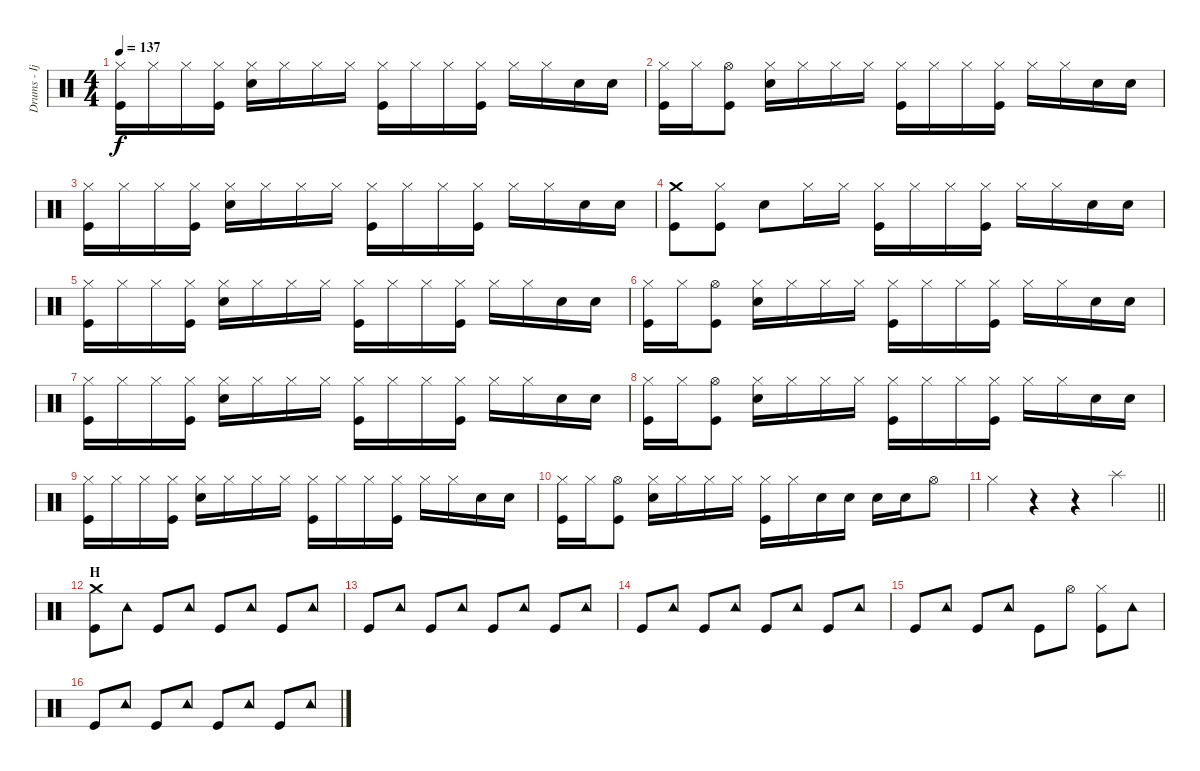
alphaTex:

\track ("Drums - Ijichi" "Drums - Ij") {instrument percussion}
\staff {score}
\articulation defaults
\ts (4 4)
\tempo 137
\clef neutral
\ks c
("Hi-Hat (closed)" "Kick (hit)").16{dy f} "Hi-Hat (closed)".16 "Hi-Hat (closed)".16 ("Hi-Hat (closed)" "Kick (hit)").16 ("Hi-Hat (closed)" "Electric Snare (hit)").16 "Hi-Hat (closed)".16 "Hi-Hat (closed)".16 "Hi-Hat (closed)".16 ("Hi-Hat (closed)" "Kick (hit)").16 "Hi-Hat (closed)".16 "Hi-Hat (closed)".16 ("Hi-Hat (closed)" "Kick (hit)").16 "Hi-Hat (closed)".16 "Hi-Hat (closed)".16 "Electric Snare (hit)".16 "Electric Snare (hit)".16 |
("Hi-Hat (closed)" "Kick (hit)").16 "Hi-Hat (closed)".16 ("Hi-Hat (open)" "Kick (hit)").8 ("Hi-Hat (closed)" "Electric Snare (hit)").16 "Hi-Hat (closed)".16 "Hi-Hat (closed)".16 "Hi-Hat (closed)".16 ("Hi-Hat (closed)" "Kick (hit)").16 "Hi-Hat (closed)".16 "Hi-Hat (closed)".16 ("Hi-Hat (closed)" "Kick (hit)").16 "Hi-Hat (closed)".16 "Hi-Hat (closed)".16 "Electric Snare (hit)".16 "Electric Snare (hit)".16 |
("Hi-Hat (closed)" "Kick (hit)").16 "Hi-Hat (closed)".16 "Hi-Hat (closed)".16 ("Hi-Hat (closed)" "Kick (hit)").16 ("Hi-Hat (closed)" "Electric Snare (hit)").16 "Hi-Hat (closed)".16 "Hi-Hat (closed)".16 "Hi-Hat (closed)".16 ("Hi-Hat (closed)" "Kick (hit)").16 "Hi-Hat (closed)".16 "Hi-Hat (closed)".16 ("Hi-Hat (closed)" "Kick (hit)").16 "Hi-Hat (closed)".16 "Hi-Hat (closed)".16 "Electric Snare (hit)".16 "Electric Snare (hit)".16 |
("Crash medium (hit)" "Kick (hit)").8 ("Hi-Hat (closed)" "Kick (hit)").8 "Electric Snare (hit)".8 "Hi-Hat (closed)".16 "Hi-Hat (closed)".16 ("Hi-Hat (closed)" "Kick (hit)").16 "Hi-Hat (closed)".16 "Hi-Hat (closed)".16 ("Hi-Hat (closed)" "Kick (hit)").16 "Hi-Hat (closed)".16 "Hi-Hat (closed)".16 "Electric Snare (hit)".16 "Electric Snare (hit)".16 |
("Hi-Hat (closed)" "Kick (hit)").16 "Hi-Hat (closed)".16 "Hi-Hat (closed)".16 ("Hi-Hat (closed)" "Kick (hit)").16 ("Hi-Hat (closed)" "Electric Snare (hit)").16 "Hi-Hat (closed)".16 "Hi-Hat (closed)".16 "Hi-Hat (closed)".16 ("Hi-Hat (closed)" "Kick (hit)").16 "Hi-Hat (closed)".16 "Hi-Hat (closed)".16 ("Hi-Hat (closed)" "Kick (hit)").16 "Hi-Hat (closed)".16 "Hi-Hat (closed)".16 "Electric Snare (hit)".16 "Electric Snare (hit)".16 |
("Hi-Hat (closed)" "Kick (hit)").16 "Hi-Hat (closed)".16 ("Hi-Hat (open)" "Kick (hit)").8 ("Hi-Hat (closed)" "Electric Snare (hit)").16 "Hi-Hat (closed)".16 "Hi-Hat (closed)".16 "Hi-Hat (closed)".16 ("Hi-Hat (closed)" "Kick (hit)").16 "Hi-Hat (closed)".16 "Hi-Hat (closed)".16 ("Hi-Hat (closed)" "Kick (hit)").16 "Hi-Hat (closed)".16 "Hi-Hat (closed)".16 "Electric Snare (hit)".16 "Electric Snare (hit)".16 |
("Hi-Hat (closed)" "Kick (hit)").16 "Hi-Hat (closed)".16 "Hi-Hat (closed)".16 ("Hi-Hat (closed)" "Kick (hit)").16 ("Hi-Hat (closed)" "Electric Snare (hit)").16 "Hi-Hat (closed)".16 "Hi-Hat (closed)".16 "Hi-Hat (closed)".16 ("Hi-Hat (closed)" "Kick (hit)").16 "Hi-Hat (closed)".16 "Hi-Hat (closed)".16 ("Hi-Hat (closed)" "Kick (hit)").16 "Hi-Hat (closed)".16 "Hi-Hat (closed)".16 "Electric Snare (hit)".16 "Electric Snare (hit)".16 |
("Hi-Hat (closed)" "Kick (hit)").16 "Hi-Hat (closed)".16 ("Hi-Hat (open)" "Kick (hit)").8 ("Hi-Hat (closed)" "Electric Snare (hit)").16 "Hi-Hat (closed)".16 "Hi-Hat (closed)".16 "Hi-Hat (closed)".16 ("Hi-Hat (closed)" "Kick (hit)").16 "Hi-Hat (closed)".16 "Hi-Hat (closed)".16 ("Hi-Hat (closed)" "Kick (hit)").16 "Hi-Hat (closed)".16 "Hi-Hat (closed)".16 "Electric Snare (hit)".16 "Electric Snare (hit)".16 |
("Hi-Hat (closed)" "Kick (hit)").16 "Hi-Hat (closed)".16 "Hi-Hat (closed)".16 ("Hi-Hat (closed)" "Kick (hit)").16 ("Hi-Hat (closed)" "Electric Snare (hit)").16 "Hi-Hat (closed)".16 "Hi-Hat (closed)".16 "Hi-Hat (closed)".16 ("Hi-Hat (closed)" "Kick (hit)").16 "Hi-Hat (closed)".16 "Hi-Hat (closed)".16 ("Hi-Hat (closed)" "Kick (hit)").16 "Hi-Hat (closed)".16 "Hi-Hat (closed)".16 "Electric Snare (hit)".16 "Electric Snare (hit)".16 |
("Hi-Hat (closed)" "Kick (hit)").16 "Hi-Hat (closed)".16 ("Hi-Hat (open)" "Kick (hit)").8 ("Hi-Hat (closed)" "Electric Snare (hit)").16 "Hi-Hat (closed)".16 "Hi-Hat (closed)".16 "Hi-Hat (closed)".16 ("Hi-Hat (closed)" "Kick (hit)").16 "Hi-Hat (closed)".16 "Electric Snare (hit)".16 "Electric Snare (hit)".16 "Electric Snare (hit)".16 "Electric Snare (hit)".16 "Hi-Hat (open)".8 |
\barLineRight lightlight "Hi-Hat (closed)".4
r.4 r.4 "Splash (hit)".4 |
\section ("" "H")
("Crash medium (hit)" "Kick (hit)").8 "Tambourine (hit)".8 "Kick (hit)".8 "Tambourine (hit)".8 "Kick (hit)".8 "Tambourine (hit)".8 "Kick (hit)".8 "Tambourine (hit)".8 |
"Kick (hit)".8 "Tambourine (hit)".8 "Kick (hit)".8 "Tambourine (hit)".8 "Kick (hit)".8 "Tambourine (hit)".8 "Kick (hit)".8 "Tambourine (hit)".8 |
"Kick (hit)".8 "Tambourine (hit)".8 "Kick (hit)".8 "Tambourine (hit)".8 "Kick (hit)".8 "Tambourine (hit)".8 "Kick (hit)".8 "Tambourine (hit)".8 |
"Kick (hit)".8 "Tambourine (hit)".8 "Kick (hit)".8 "Tambourine (hit)".8 "Kick (hit)".8 "Hi-Hat (open)".8 ("Hi-Hat (closed)" "Kick (hit)").8 "Tambourine (hit)".8 |
"Kick (hit)".8 "Tambourine (hit)".8 "Kick (hit)".8 "Tambourine (hit)".8 "Kick (hit)".8 "Tambourine (hit)".8 "Kick (hit)".8 "Tambourine (hit)".8
